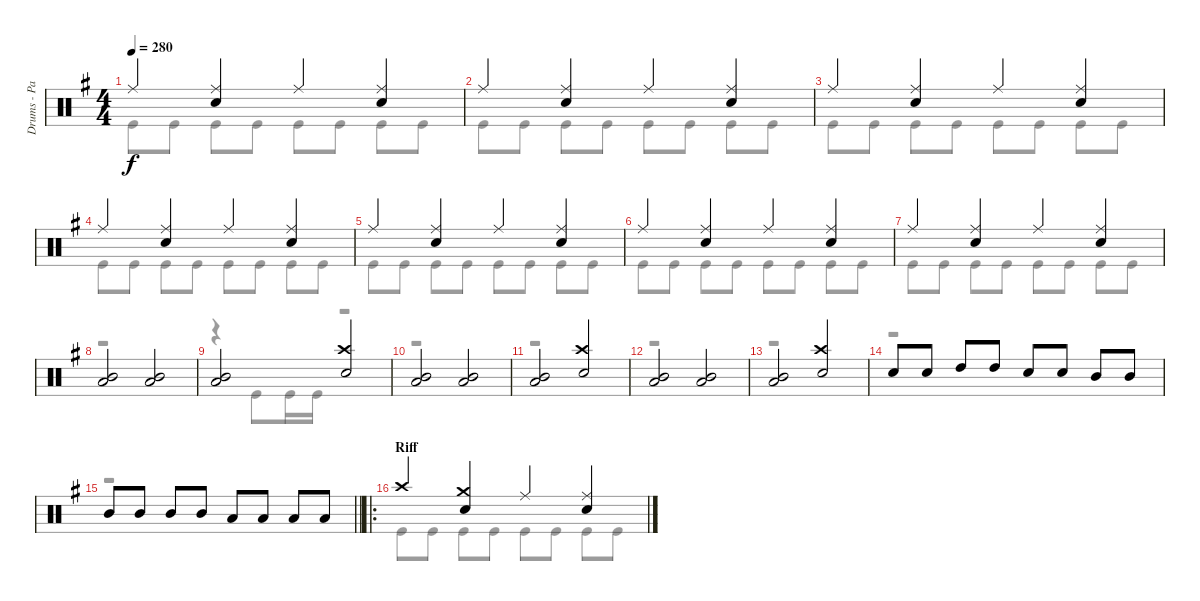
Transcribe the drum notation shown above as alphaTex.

\track ("Drums - Patrick Johansson" "Drums - Pa") {instrument percussion}
\staff {score}
\articulation defaults
\voice
\ts (4 4)
\tempo 280
\clef neutral
\ks eminor "Ride (middle)".4{dy f}
("Ride (middle)" "Snare (hit) 2").4 "Ride (middle)".4 ("Ride (middle)" "Snare (hit) 2").4 |
"Ride (middle)".4 ("Ride (middle)" "Snare (hit) 2").4 "Ride (middle)".4 ("Ride (middle)" "Snare (hit) 2").4 |
"Ride (middle)".4 ("Ride (middle)" "Snare (hit) 2").4 "Ride (middle)".4 ("Ride (middle)" "Snare (hit) 2").4 |
"Ride (middle)".4 ("Ride (middle)" "Snare (hit) 2").4 "Ride (middle)".4 ("Ride (middle)" "Snare (hit) 2").4 |
"Ride (middle)".4 ("Ride (middle)" "Snare (hit) 2").4 "Ride (middle)".4 ("Ride (middle)" "Snare (hit) 2").4 |
"Ride (middle)".4 ("Ride (middle)" "Snare (hit) 2").4 "Ride (middle)".4 ("Ride (middle)" "Snare (hit) 2").4 |
"Ride (middle)".4 ("Ride (middle)" "Snare (hit) 2").4 "Ride (middle)".4 ("Ride (middle)" "Snare (hit) 2").4 |
("Mid Tom (hit)" "Low Tom (hit)").2 ("Mid Tom (hit)" "Low Tom (hit)").2 |
("Mid Tom (hit)" "Low Tom (hit)").2 ("Crash high (hit)" "Snare (hit) 2").2 |
("Mid Tom (hit)" "Low Tom (hit)").2 ("Mid Tom (hit)" "Low Tom (hit)").2 |
("Mid Tom (hit)" "Low Tom (hit)").2 ("Crash high (hit)" "Snare (hit) 2").2 |
("Mid Tom (hit)" "Low Tom (hit)").2 ("Mid Tom (hit)" "Low Tom (hit)").2 |
("Mid Tom (hit)" "Low Tom (hit)").2 ("Crash high (hit)" "Snare (hit) 2").2 |
"Snare (hit) 2".8 "Snare (hit) 2".8 "High Tom (hit)".8 "High Tom (hit)".8 "Snare (hit) 2".8 "Snare (hit) 2".8 "Mid Tom (hit)".8 "Mid Tom (hit)".8 |
\barLineRight lightlight "Mid Tom (hit)".8 "Mid Tom (hit)".8 "Mid Tom (hit)".8 "Mid Tom (hit)".8 "Low Tom (hit)".8 "Low Tom (hit)".8 "Low Tom (hit)".8 "Low Tom (hit)".8
|
\ro
\section ("" "Riff")
"Crash high (hit)".4 ("Crash medium (hit)" "Snare (hit) 2").4 "Ride (middle)".4 ("Ride (middle)" "Snare (hit) 2").4
\voice
\clef neutral
\ottava regular
\simile none
\ks eminor "Kick (hit)".8{dy f} "Kick (hit)".8 "Kick (hit)".8 "Kick (hit)".8 "Kick (hit)".8 "Kick (hit)".8 "Kick (hit)".8 "Kick (hit)".8
|
"Kick (hit)".8 "Kick (hit)".8 "Kick (hit)".8 "Kick (hit)".8 "Kick (hit)".8 "Kick (hit)".8 "Kick (hit)".8 "Kick (hit)".8 |
"Kick (hit)".8 "Kick (hit)".8 "Kick (hit)".8 "Kick (hit)".8 "Kick (hit)".8 "Kick (hit)".8 "Kick (hit)".8 "Kick (hit)".8 |
"Kick (hit)".8 "Kick (hit)".8 "Kick (hit)".8 "Kick (hit)".8 "Kick (hit)".8 "Kick (hit)".8 "Kick (hit)".8 "Kick (hit)".8 |
"Kick (hit)".8 "Kick (hit)".8 "Kick (hit)".8 "Kick (hit)".8 "Kick (hit)".8 "Kick (hit)".8 "Kick (hit)".8 "Kick (hit)".8 |
"Kick (hit)".8 "Kick (hit)".8 "Kick (hit)".8 "Kick (hit)".8 "Kick (hit)".8 "Kick (hit)".8 "Kick (hit)".8 "Kick (hit)".8 |
"Kick (hit)".8 "Kick (hit)".8 "Kick (hit)".8 "Kick (hit)".8 "Kick (hit)".8 "Kick (hit)".8 "Kick (hit)".8 "Kick (hit)".8 |
r.1 |
r.4 "Kick (hit)".8 "Kick (hit)".16 "Kick (hit)".16 r.2 |
r.1 |
r.1 |
r.1 |
r.1 |
r.1 |
\barLineRight lightlight
r.1 |
"Kick (hit)".8 "Kick (hit)".8 "Kick (hit)".8 "Kick (hit)".8 "Kick (hit)".8 "Kick (hit)".8 "Kick (hit)".8 "Kick (hit)".8
